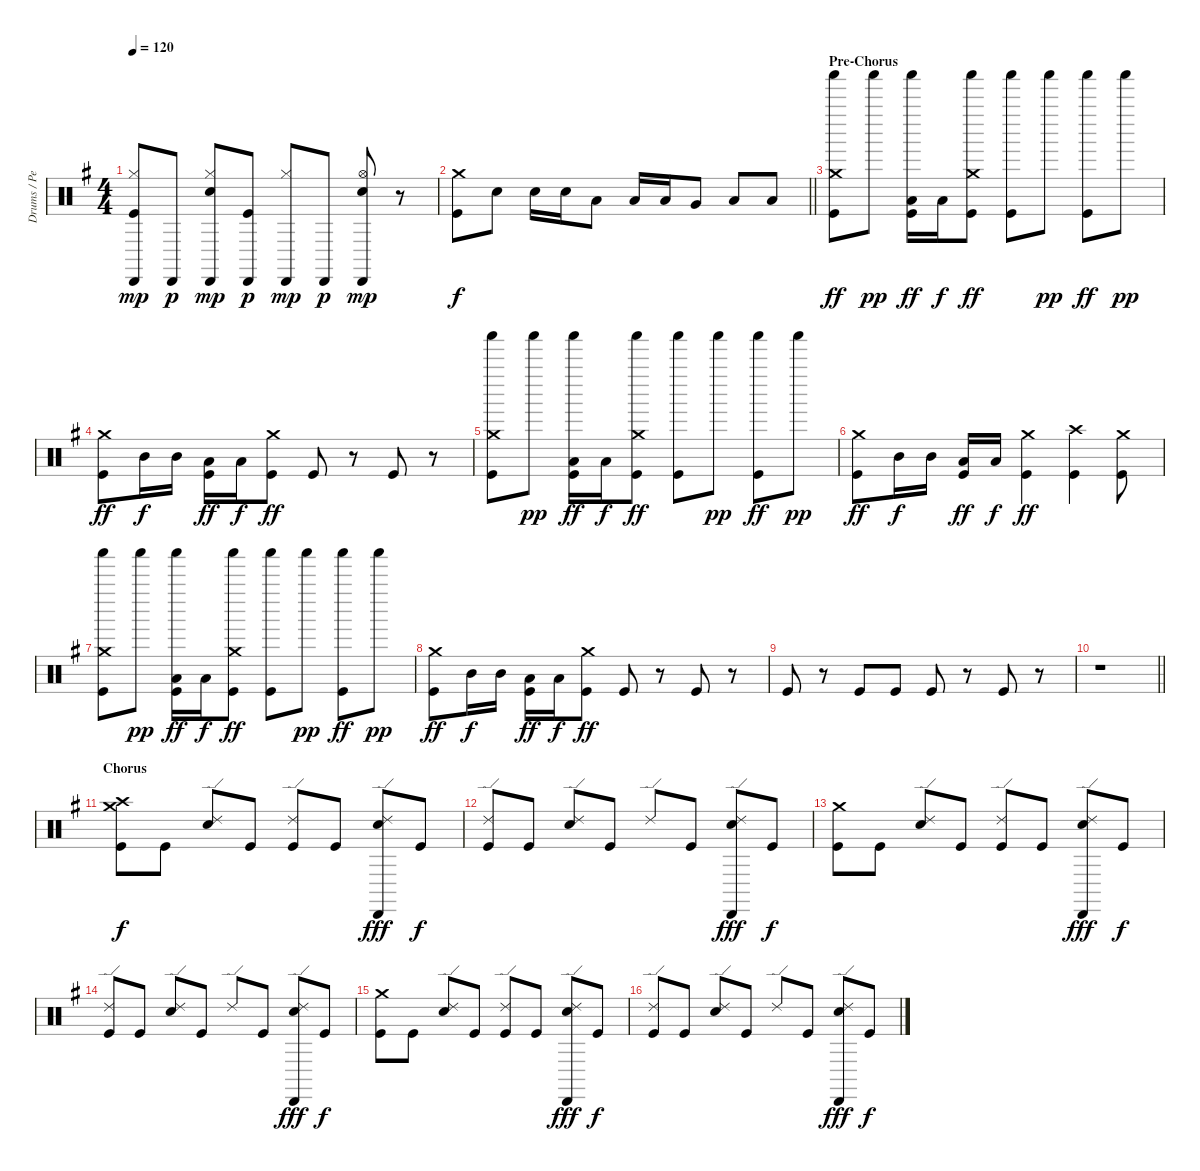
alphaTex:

\track ("Drums / Percussion" "Drums / Pe") {instrument percussion}
\staff {score}
\articulation defaults
\ts (4 4)
\tempo 120
\clef neutral
\ks eminor
("Hi-Hat (closed)" "Cabasa (hit)" "Kick (hit)").8{dy mp} "Cabasa (hit)".8{dy p} ("Hi-Hat (closed)" "Cabasa (hit)" "Snare (hit) 2").8{dy mp} ("Cabasa (hit)" "Kick (hit)").8{dy p} ("Hi-Hat (closed)" "Cabasa (hit)").8{dy mp} "Cabasa (hit)".8{dy p} ("Hi-Hat (open)" "Cabasa (hit)" "Snare (hit) 2").8{dy mp} r.8 |
\barLineRight lightlight
("Crash medium (hit)" "Kick (hit)").8{dy f} "Snare (hit) 2".8 "Snare (hit) 2".16 "Snare (hit) 2".16 "Low Tom (hit)".8 "Low Tom (hit)".16 "Low Tom (hit)".16 "Very Low Tom (hit)".8 "Low Floor Tom (hit)".8 "Low Floor Tom (hit)".8 |
\section ("" "Pre-Chorus")
("Crash medium (hit)" "Shaker (hit)" "Kick (hit)").8{dy ff balance 8} "Shaker (hit)".8{dy pp} ("Shaker (hit)" "Low Tom (hit)" "Kick (hit)").16{dy ff} "Low Tom (hit)".16{dy f} ("Crash medium (hit)" "Shaker (hit)" "Kick (hit)").8{dy ff} ("Shaker (hit)" "Kick (hit)").8 "Shaker (hit)".8{dy pp} ("Shaker (hit)" "Kick (hit)").8{dy ff} "Shaker (hit)".8{dy pp} |
("Crash medium (hit)" "Kick (hit)").8{dy ff} "Mid Tom (hit)".16{dy f} "Mid Tom (hit)".16 ("Low Tom (hit)" "Kick (hit)").16{dy ff} "Low Tom (hit)".16{dy f} ("Crash medium (hit)" "Kick (hit)").8{dy ff} "Kick (hit)".8 r.8 "Kick (hit)".8 r.8 |
("Crash medium (hit)" "Shaker (hit)" "Kick (hit)").8 "Shaker (hit)".8{dy pp} ("Shaker (hit)" "Low Tom (hit)" "Kick (hit)").16{dy ff} "Low Tom (hit)".16{dy f} ("Crash medium (hit)" "Shaker (hit)" "Kick (hit)").8{dy ff} ("Shaker (hit)" "Kick (hit)").8 "Shaker (hit)".8{dy pp} ("Shaker (hit)" "Kick (hit)").8{dy ff} "Shaker (hit)".8{dy pp} |
("Crash medium (hit)" "Kick (hit)").8{dy ff} "Mid Tom (hit)".16{dy f} "Mid Tom (hit)".16 ("Low Tom (hit)" "Kick (hit)").16{dy ff} "Low Tom (hit)".16{dy f} ("Crash medium (hit)" "Kick (hit)").4{dy ff} ("Crash high (hit)" "Kick (hit)").4 ("Crash medium (hit)" "Kick (hit)").8 |
("Crash medium (hit)" "Shaker (hit)" "Kick (hit)").8 "Shaker (hit)".8{dy pp} ("Shaker (hit)" "Low Tom (hit)" "Kick (hit)").16{dy ff} "Low Tom (hit)".16{dy f} ("Crash medium (hit)" "Shaker (hit)" "Kick (hit)").8{dy ff} ("Shaker (hit)" "Kick (hit)").8 "Shaker (hit)".8{dy pp} ("Shaker (hit)" "Kick (hit)").8{dy ff} "Shaker (hit)".8{dy pp} |
("Crash medium (hit)" "Kick (hit)").8{dy ff} "Mid Tom (hit)".16{dy f} "Mid Tom (hit)".16 ("Low Tom (hit)" "Kick (hit)").16{dy ff} "Low Tom (hit)".16{dy f} ("Crash medium (hit)" "Kick (hit)").8{dy ff} "Kick (hit)".8 r.8 "Kick (hit)".8 r.8 |
"Kick (hit)".8 r.8 "Kick (hit)".8 "Kick (hit)".8 "Kick (hit)".8 r.8 "Kick (hit)".8 r.8 |
\barLineRight lightlight
r.1 |
\section ("" "Chorus")
("Crash medium (hit)" "Crash high (hit)" "Kick (hit)").8{dy f} "Kick (hit)".8 ("Ride (edge) 2" "Snare (hit) 2").8 "Kick (hit)".8 ("Ride (edge) 2" "Kick (hit)").8 "Kick (hit)".8 ("Ride (edge) 2" "Cabasa (hit)" "Snare (hit) 2").8{dy fff} "Kick (hit)".8{dy f} |
("Ride (edge) 2" "Kick (hit)").8 "Kick (hit)".8 ("Ride (edge) 2" "Snare (hit) 2").8 "Kick (hit)".8 "Ride (edge) 2".8 "Kick (hit)".8 ("Ride (edge) 2" "Cabasa (hit)" "Snare (hit) 2").8{dy fff} "Kick (hit)".8{dy f} |
("Crash medium (hit)" "Kick (hit)").8 "Kick (hit)".8 ("Ride (edge) 2" "Snare (hit) 2").8 "Kick (hit)".8 ("Ride (edge) 2" "Kick (hit)").8 "Kick (hit)".8 ("Ride (edge) 2" "Cabasa (hit)" "Snare (hit) 2").8{dy fff} "Kick (hit)".8{dy f} |
("Ride (edge) 2" "Kick (hit)").8 "Kick (hit)".8 ("Ride (edge) 2" "Snare (hit) 2").8 "Kick (hit)".8 "Ride (edge) 2".8 "Kick (hit)".8 ("Ride (edge) 2" "Cabasa (hit)" "Snare (hit) 2").8{dy fff} "Kick (hit)".8{dy f} |
("Crash medium (hit)" "Kick (hit)").8 "Kick (hit)".8 ("Ride (edge) 2" "Snare (hit) 2").8 "Kick (hit)".8 ("Ride (edge) 2" "Kick (hit)").8 "Kick (hit)".8 ("Ride (edge) 2" "Cabasa (hit)" "Snare (hit) 2").8{dy fff} "Kick (hit)".8{dy f} |
("Ride (edge) 2" "Kick (hit)").8 "Kick (hit)".8 ("Ride (edge) 2" "Snare (hit) 2").8 "Kick (hit)".8 "Ride (edge) 2".8 "Kick (hit)".8 ("Ride (edge) 2" "Cabasa (hit)" "Snare (hit) 2").8{dy fff} "Kick (hit)".8{dy f}
